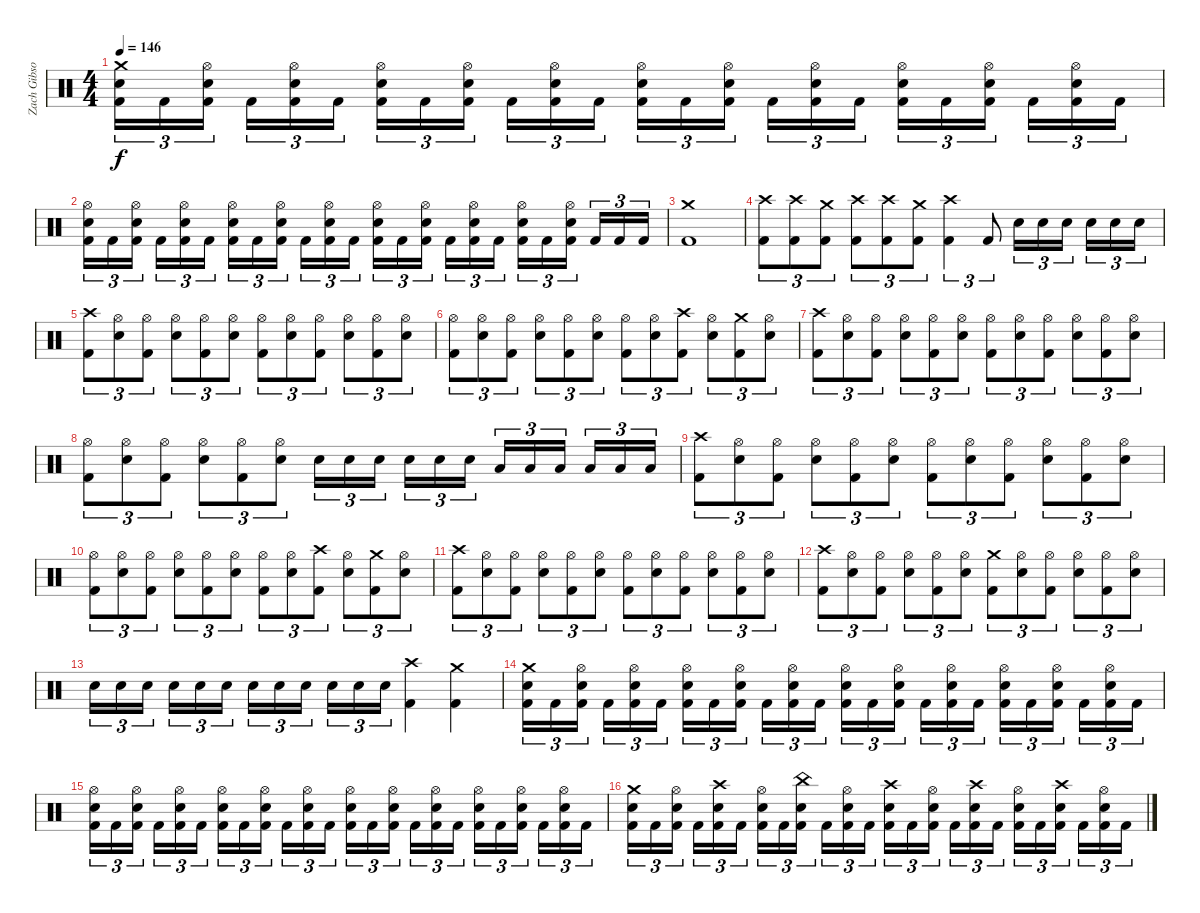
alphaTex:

\track ("Zach Gibson (Drums)" "Zach Gibso") {instrument percussion}
\staff {score}
\articulation defaults
\ts (4 4)
\tempo 146
\clef neutral
\ks c
("Crash medium (hit)" "Snare (hit) 2" "Kick (hit) 2").16{tu (3 2) dy f} "Kick (hit) 2".16{tu (3 2)} ("Hi-Hat (open)" "Snare (hit) 2" "Kick (hit) 2").16{tu (3 2)} "Kick (hit) 2".16{tu (3 2)} ("Hi-Hat (open)" "Snare (hit) 2" "Kick (hit) 2").16{tu (3 2)} "Kick (hit) 2".16{tu (3 2)} ("Hi-Hat (open)" "Snare (hit) 2" "Kick (hit) 2").16{tu (3 2)} "Kick (hit) 2".16{tu (3 2)} ("Hi-Hat (open)" "Snare (hit) 2" "Kick (hit) 2").16{tu (3 2)} "Kick (hit) 2".16{tu (3 2)} ("Hi-Hat (open)" "Snare (hit) 2" "Kick (hit) 2").16{tu (3 2)} "Kick (hit) 2".16{tu (3 2)} ("Hi-Hat (open)" "Snare (hit) 2" "Kick (hit) 2").16{tu (3 2)} "Kick (hit) 2".16{tu (3 2)} ("Hi-Hat (open)" "Snare (hit) 2" "Kick (hit) 2").16{tu (3 2)} "Kick (hit) 2".16{tu (3 2)} ("Hi-Hat (open)" "Snare (hit) 2" "Kick (hit) 2").16{tu (3 2)} "Kick (hit) 2".16{tu (3 2)} ("Hi-Hat (open)" "Snare (hit) 2" "Kick (hit) 2").16{tu (3 2)} "Kick (hit) 2".16{tu (3 2)} ("Hi-Hat (open)" "Snare (hit) 2" "Kick (hit) 2").16{tu (3 2)} "Kick (hit) 2".16{tu (3 2)} ("Hi-Hat (open)" "Snare (hit) 2" "Kick (hit) 2").16{tu (3 2)} "Kick (hit) 2".16{tu (3 2)} |
("Hi-Hat (open)" "Snare (hit) 2" "Kick (hit) 2").16{tu (3 2)} "Kick (hit) 2".16{tu (3 2)} ("Hi-Hat (open)" "Snare (hit) 2" "Kick (hit) 2").16{tu (3 2)} "Kick (hit) 2".16{tu (3 2)} ("Hi-Hat (open)" "Snare (hit) 2" "Kick (hit) 2").16{tu (3 2)} "Kick (hit) 2".16{tu (3 2)} ("Hi-Hat (open)" "Snare (hit) 2" "Kick (hit) 2").16{tu (3 2)} "Kick (hit) 2".16{tu (3 2)} ("Hi-Hat (open)" "Snare (hit) 2" "Kick (hit) 2").16{tu (3 2)} "Kick (hit) 2".16{tu (3 2)} ("Hi-Hat (open)" "Snare (hit) 2" "Kick (hit) 2").16{tu (3 2)} "Kick (hit) 2".16{tu (3 2)} ("Hi-Hat (open)" "Snare (hit) 2" "Kick (hit) 2").16{tu (3 2)} "Kick (hit) 2".16{tu (3 2)} ("Hi-Hat (open)" "Snare (hit) 2" "Kick (hit) 2").16{tu (3 2)} "Kick (hit) 2".16{tu (3 2)} ("Hi-Hat (open)" "Snare (hit) 2" "Kick (hit) 2").16{tu (3 2)} "Kick (hit) 2".16{tu (3 2)} ("Hi-Hat (open)" "Snare (hit) 2" "Kick (hit) 2").16{tu (3 2)} "Kick (hit) 2".16{tu (3 2)} ("Hi-Hat (open)" "Snare (hit) 2" "Kick (hit) 2").16{tu (3 2)} "Kick (hit) 2".16{tu (3 2)} "Kick (hit) 2".16{tu (3 2)} "Kick (hit) 2".16{tu (3 2)} |
("Crash medium (hit)" "Kick (hit) 2").1 |
("Crash high (hit)" "Kick (hit) 2").8{tu (3 2)} ("Crash high (hit)" "Kick (hit) 2").8{tu (3 2)} ("Crash medium (hit)" "Kick (hit) 2").8{tu (3 2)} ("Crash high (hit)" "Kick (hit) 2").8{tu (3 2)} ("Crash high (hit)" "Kick (hit) 2").8{tu (3 2)} ("Crash medium (hit)" "Kick (hit) 2").8{tu (3 2)} ("Crash high (hit)" "Kick (hit) 2").4{tu (3 2)} "Kick (hit) 2".8{tu (3 2)} "Snare (hit) 2".16{tu (3 2)} "Snare (hit) 2".16{tu (3 2)} "Snare (hit) 2".16{tu (3 2)} "Snare (hit) 2".16{tu (3 2)} "Snare (hit) 2".16{tu (3 2)} "Snare (hit) 2".16{tu (3 2)} |
("Crash high (hit)" "Kick (hit) 2").8{tu (3 2)} ("Hi-Hat (open)" "Snare (hit) 2").8{tu (3 2)} ("Hi-Hat (open)" "Kick (hit) 2").8{tu (3 2)} ("Hi-Hat (open)" "Snare (hit) 2").8{tu (3 2)} ("Hi-Hat (open)" "Kick (hit) 2").8{tu (3 2)} ("Hi-Hat (open)" "Snare (hit) 2").8{tu (3 2)} ("Hi-Hat (open)" "Kick (hit) 2").8{tu (3 2)} ("Hi-Hat (open)" "Snare (hit) 2").8{tu (3 2)} ("Hi-Hat (open)" "Kick (hit) 2").8{tu (3 2)} ("Hi-Hat (open)" "Snare (hit) 2").8{tu (3 2)} ("Hi-Hat (open)" "Kick (hit) 2").8{tu (3 2)} ("Hi-Hat (open)" "Snare (hit) 2").8{tu (3 2)} |
("Hi-Hat (open)" "Kick (hit) 2").8{tu (3 2)} ("Hi-Hat (open)" "Snare (hit) 2").8{tu (3 2)} ("Hi-Hat (open)" "Kick (hit) 2").8{tu (3 2)} ("Hi-Hat (open)" "Snare (hit) 2").8{tu (3 2)} ("Hi-Hat (open)" "Kick (hit) 2").8{tu (3 2)} ("Hi-Hat (open)" "Snare (hit) 2").8{tu (3 2)} ("Hi-Hat (open)" "Kick (hit) 2").8{tu (3 2)} ("Hi-Hat (open)" "Snare (hit) 2").8{tu (3 2)} ("Crash high (hit)" "Kick (hit) 2").8{tu (3 2)} ("Hi-Hat (open)" "Snare (hit) 2").8{tu (3 2)} ("Crash medium (hit)" "Kick (hit) 2").8{tu (3 2)} ("Hi-Hat (open)" "Snare (hit) 2").8{tu (3 2)} |
("Crash high (hit)" "Kick (hit) 2").8{tu (3 2)} ("Hi-Hat (open)" "Snare (hit) 2").8{tu (3 2)} ("Hi-Hat (open)" "Kick (hit) 2").8{tu (3 2)} ("Hi-Hat (open)" "Snare (hit) 2").8{tu (3 2)} ("Hi-Hat (open)" "Kick (hit) 2").8{tu (3 2)} ("Hi-Hat (open)" "Snare (hit) 2").8{tu (3 2)} ("Hi-Hat (open)" "Kick (hit) 2").8{tu (3 2)} ("Hi-Hat (open)" "Snare (hit) 2").8{tu (3 2)} ("Hi-Hat (open)" "Kick (hit) 2").8{tu (3 2)} ("Hi-Hat (open)" "Snare (hit) 2").8{tu (3 2)} ("Hi-Hat (open)" "Kick (hit) 2").8{tu (3 2)} ("Hi-Hat (open)" "Snare (hit) 2").8{tu (3 2)} |
("Hi-Hat (open)" "Kick (hit) 2").8{tu (3 2)} ("Hi-Hat (open)" "Snare (hit) 2").8{tu (3 2)} ("Hi-Hat (open)" "Kick (hit) 2").8{tu (3 2)} ("Hi-Hat (open)" "Snare (hit) 2").8{tu (3 2)} ("Hi-Hat (open)" "Kick (hit) 2").8{tu (3 2)} ("Hi-Hat (open)" "Snare (hit) 2").8{tu (3 2)} "Snare (hit) 2".16{tu (3 2)} "Snare (hit) 2".16{tu (3 2)} "Snare (hit) 2".16{tu (3 2)} "Snare (hit) 2".16{tu (3 2)} "Snare (hit) 2".16{tu (3 2)} "Snare (hit) 2".16{tu (3 2)} "Low Tom (hit)".16{tu (3 2)} "Low Tom (hit)".16{tu (3 2)} "Low Tom (hit)".16{tu (3 2)} "Low Tom (hit)".16{tu (3 2)} "Low Tom (hit)".16{tu (3 2)} "Low Tom (hit)".16{tu (3 2)} |
("Crash high (hit)" "Kick (hit) 2").8{tu (3 2)} ("Hi-Hat (open)" "Snare (hit) 2").8{tu (3 2)} ("Hi-Hat (open)" "Kick (hit) 2").8{tu (3 2)} ("Hi-Hat (open)" "Snare (hit) 2").8{tu (3 2)} ("Hi-Hat (open)" "Kick (hit) 2").8{tu (3 2)} ("Hi-Hat (open)" "Snare (hit) 2").8{tu (3 2)} ("Hi-Hat (open)" "Kick (hit) 2").8{tu (3 2)} ("Hi-Hat (open)" "Snare (hit) 2").8{tu (3 2)} ("Hi-Hat (open)" "Kick (hit) 2").8{tu (3 2)} ("Hi-Hat (open)" "Snare (hit) 2").8{tu (3 2)} ("Hi-Hat (open)" "Kick (hit) 2").8{tu (3 2)} ("Hi-Hat (open)" "Snare (hit) 2").8{tu (3 2)} |
("Hi-Hat (open)" "Kick (hit) 2").8{tu (3 2)} ("Hi-Hat (open)" "Snare (hit) 2").8{tu (3 2)} ("Hi-Hat (open)" "Kick (hit) 2").8{tu (3 2)} ("Hi-Hat (open)" "Snare (hit) 2").8{tu (3 2)} ("Hi-Hat (open)" "Kick (hit) 2").8{tu (3 2)} ("Hi-Hat (open)" "Snare (hit) 2").8{tu (3 2)} ("Hi-Hat (open)" "Kick (hit) 2").8{tu (3 2)} ("Hi-Hat (open)" "Snare (hit) 2").8{tu (3 2)} ("Crash high (hit)" "Kick (hit) 2").8{tu (3 2)} ("Hi-Hat (open)" "Snare (hit) 2").8{tu (3 2)} ("Crash medium (hit)" "Kick (hit) 2").8{tu (3 2)} ("Hi-Hat (open)" "Snare (hit) 2").8{tu (3 2)} |
("Crash high (hit)" "Kick (hit) 2").8{tu (3 2)} ("Hi-Hat (open)" "Snare (hit) 2").8{tu (3 2)} ("Hi-Hat (open)" "Kick (hit) 2").8{tu (3 2)} ("Hi-Hat (open)" "Snare (hit) 2").8{tu (3 2)} ("Hi-Hat (open)" "Kick (hit) 2").8{tu (3 2)} ("Hi-Hat (open)" "Snare (hit) 2").8{tu (3 2)} ("Hi-Hat (open)" "Kick (hit) 2").8{tu (3 2)} ("Hi-Hat (open)" "Snare (hit) 2").8{tu (3 2)} ("Hi-Hat (open)" "Kick (hit) 2").8{tu (3 2)} ("Hi-Hat (open)" "Snare (hit) 2").8{tu (3 2)} ("Hi-Hat (open)" "Kick (hit) 2").8{tu (3 2)} ("Hi-Hat (open)" "Snare (hit) 2").8{tu (3 2)} |
("Crash high (hit)" "Kick (hit) 2").8{tu (3 2)} ("Hi-Hat (open)" "Snare (hit) 2").8{tu (3 2)} ("Hi-Hat (open)" "Kick (hit) 2").8{tu (3 2)} ("Hi-Hat (open)" "Snare (hit) 2").8{tu (3 2)} ("Hi-Hat (open)" "Kick (hit) 2").8{tu (3 2)} ("Hi-Hat (open)" "Snare (hit) 2").8{tu (3 2)} ("Crash medium (hit)" "Kick (hit) 2").8{tu (3 2)} ("Hi-Hat (open)" "Snare (hit) 2").8{tu (3 2)} ("Hi-Hat (open)" "Kick (hit) 2").8{tu (3 2)} ("Hi-Hat (open)" "Snare (hit) 2").8{tu (3 2)} ("Hi-Hat (open)" "Kick (hit) 2").8{tu (3 2)} ("Hi-Hat (open)" "Snare (hit) 2").8{tu (3 2)} |
"Snare (hit) 2".16{tu (3 2)} "Snare (hit) 2".16{tu (3 2)} "Snare (hit) 2".16{tu (3 2)} "Snare (hit) 2".16{tu (3 2)} "Snare (hit) 2".16{tu (3 2)} "Snare (hit) 2".16{tu (3 2)} "Snare (hit) 2".16{tu (3 2)} "Snare (hit) 2".16{tu (3 2)} "Snare (hit) 2".16{tu (3 2)} "Snare (hit) 2".16{tu (3 2)} "Snare (hit) 2".16{tu (3 2)} "Snare (hit) 2".16{tu (3 2)} ("Crash high (hit)" "Kick (hit) 2").4 ("Crash medium (hit)" "Kick (hit) 2").4 |
("Crash medium (hit)" "Snare (hit) 2" "Kick (hit) 2").16{tu (3 2)} "Kick (hit) 2".16{tu (3 2)} ("Hi-Hat (open)" "Snare (hit) 2" "Kick (hit) 2").16{tu (3 2)} "Kick (hit) 2".16{tu (3 2)} ("Hi-Hat (open)" "Snare (hit) 2" "Kick (hit) 2").16{tu (3 2)} "Kick (hit) 2".16{tu (3 2)} ("Hi-Hat (open)" "Snare (hit) 2" "Kick (hit) 2").16{tu (3 2)} "Kick (hit) 2".16{tu (3 2)} ("Hi-Hat (open)" "Snare (hit) 2" "Kick (hit) 2").16{tu (3 2)} "Kick (hit) 2".16{tu (3 2)} ("Hi-Hat (open)" "Snare (hit) 2" "Kick (hit) 2").16{tu (3 2)} "Kick (hit) 2".16{tu (3 2)} ("Hi-Hat (open)" "Snare (hit) 2" "Kick (hit) 2").16{tu (3 2)} "Kick (hit) 2".16{tu (3 2)} ("Hi-Hat (open)" "Snare (hit) 2" "Kick (hit) 2").16{tu (3 2)} "Kick (hit) 2".16{tu (3 2)} ("Hi-Hat (open)" "Snare (hit) 2" "Kick (hit) 2").16{tu (3 2)} "Kick (hit) 2".16{tu (3 2)} ("Hi-Hat (open)" "Snare (hit) 2" "Kick (hit) 2").16{tu (3 2)} "Kick (hit) 2".16{tu (3 2)} ("Hi-Hat (open)" "Snare (hit) 2" "Kick (hit) 2").16{tu (3 2)} "Kick (hit) 2".16{tu (3 2)} ("Hi-Hat (open)" "Snare (hit) 2" "Kick (hit) 2").16{tu (3 2)} "Kick (hit) 2".16{tu (3 2)} |
("Hi-Hat (open)" "Snare (hit) 2" "Kick (hit) 2").16{tu (3 2)} "Kick (hit) 2".16{tu (3 2)} ("Hi-Hat (open)" "Snare (hit) 2" "Kick (hit) 2").16{tu (3 2)} "Kick (hit) 2".16{tu (3 2)} ("Hi-Hat (open)" "Snare (hit) 2" "Kick (hit) 2").16{tu (3 2)} "Kick (hit) 2".16{tu (3 2)} ("Hi-Hat (open)" "Snare (hit) 2" "Kick (hit) 2").16{tu (3 2)} "Kick (hit) 2".16{tu (3 2)} ("Hi-Hat (open)" "Snare (hit) 2" "Kick (hit) 2").16{tu (3 2)} "Kick (hit) 2".16{tu (3 2)} ("Hi-Hat (open)" "Snare (hit) 2" "Kick (hit) 2").16{tu (3 2)} "Kick (hit) 2".16{tu (3 2)} ("Hi-Hat (open)" "Snare (hit) 2" "Kick (hit) 2").16{tu (3 2)} "Kick (hit) 2".16{tu (3 2)} ("Hi-Hat (open)" "Snare (hit) 2" "Kick (hit) 2").16{tu (3 2)} "Kick (hit) 2".16{tu (3 2)} ("Hi-Hat (open)" "Snare (hit) 2" "Kick (hit) 2").16{tu (3 2)} "Kick (hit) 2".16{tu (3 2)} ("Hi-Hat (open)" "Snare (hit) 2" "Kick (hit) 2").16{tu (3 2)} "Kick (hit) 2".16{tu (3 2)} ("Hi-Hat (open)" "Snare (hit) 2" "Kick (hit) 2").16{tu (3 2)} "Kick (hit) 2".16{tu (3 2)} ("Hi-Hat (open)" "Snare (hit) 2" "Kick (hit) 2").16{tu (3 2)} "Kick (hit) 2".16{tu (3 2)} |
("Crash medium (hit)" "Snare (hit) 2" "Kick (hit) 2").16{tu (3 2)} "Kick (hit) 2".16{tu (3 2)} ("Hi-Hat (open)" "Snare (hit) 2" "Kick (hit) 2").16{tu (3 2)} "Kick (hit) 2".16{tu (3 2)} ("Crash high (hit)" "Snare (hit) 2" "Kick (hit) 2").16{tu (3 2)} "Kick (hit) 2".16{tu (3 2)} ("Hi-Hat (open)" "Snare (hit) 2" "Kick (hit) 2").16{tu (3 2)} "Kick (hit) 2".16{tu (3 2)} ("China (hit)" "Snare (hit) 2" "Kick (hit) 2").16{tu (3 2)} "Kick (hit) 2".16{tu (3 2)} ("Hi-Hat (open)" "Snare (hit) 2" "Kick (hit) 2").16{tu (3 2)} "Kick (hit) 2".16{tu (3 2)} ("Crash high (hit)" "Snare (hit) 2" "Kick (hit) 2").16{tu (3 2)} "Kick (hit) 2".16{tu (3 2)} ("Hi-Hat (open)" "Snare (hit) 2" "Kick (hit) 2").16{tu (3 2)} "Kick (hit) 2".16{tu (3 2)} ("Crash high (hit)" "Snare (hit) 2" "Kick (hit) 2").16{tu (3 2)} "Kick (hit) 2".16{tu (3 2)} ("Hi-Hat (open)" "Snare (hit) 2" "Kick (hit) 2").16{tu (3 2)} "Kick (hit) 2".16{tu (3 2)} ("Crash high (hit)" "Snare (hit) 2" "Kick (hit) 2").16{tu (3 2)} "Kick (hit) 2".16{tu (3 2)} ("Hi-Hat (open)" "Snare (hit) 2" "Kick (hit) 2").16{tu (3 2)} "Kick (hit) 2".16{tu (3 2)}
